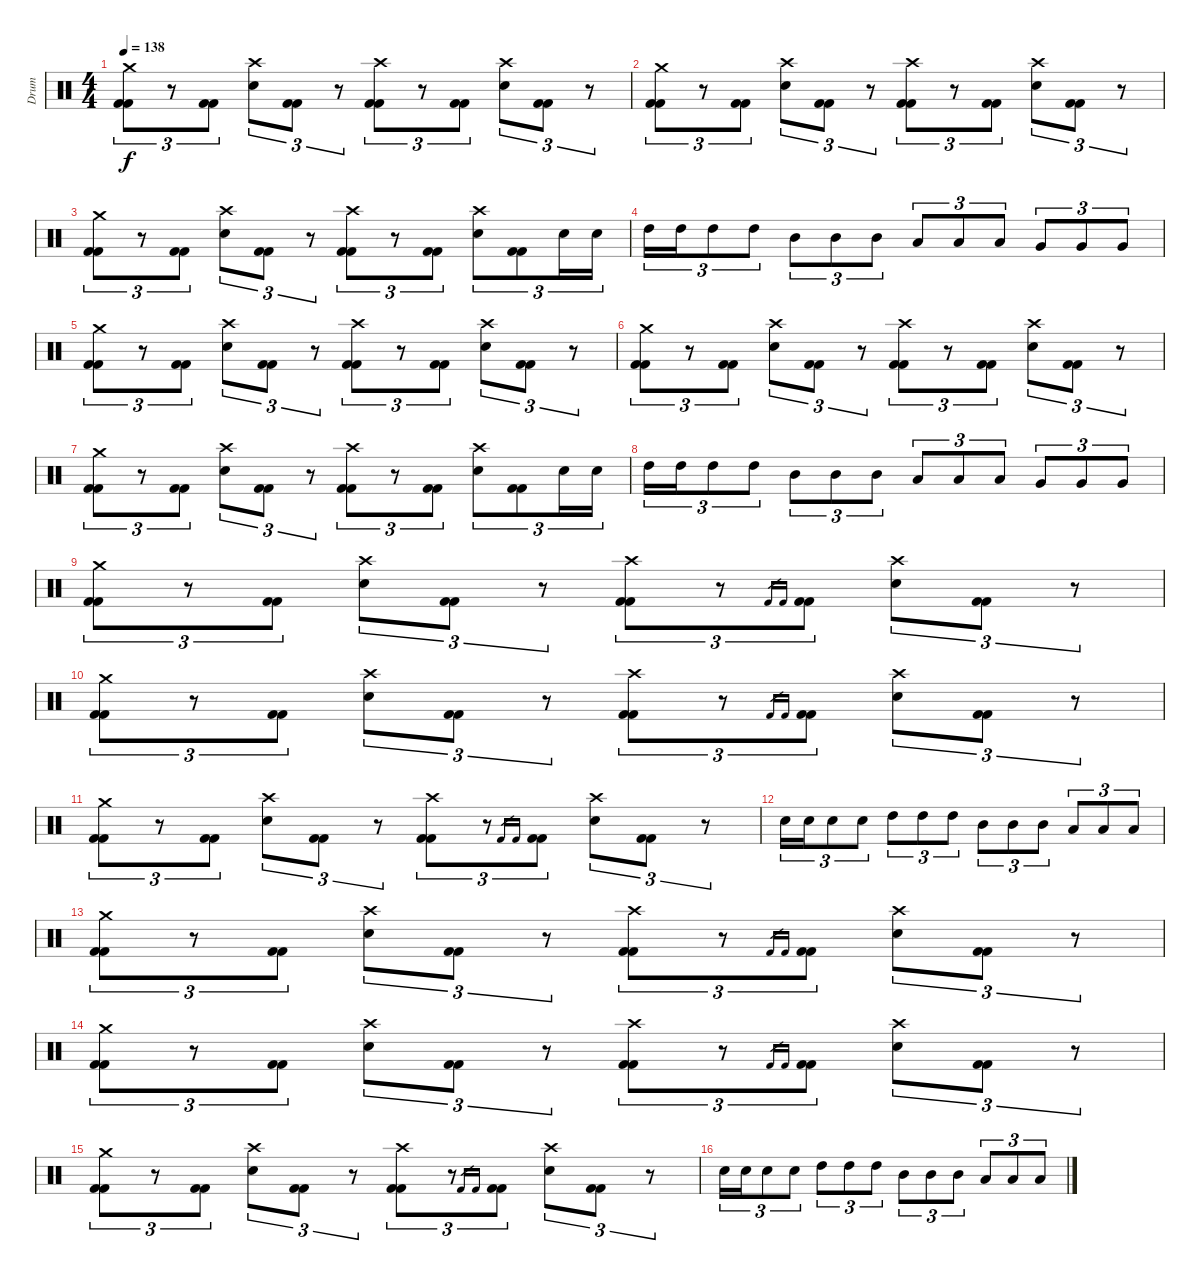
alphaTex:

\track ("Drum" "Drum") {instrument percussion}
\staff {score}
\articulation defaults
\ts (4 4)
\tempo 138
\clef neutral
\ks c
("Kick (hit) 2" "Kick (hit) 2" "Crash medium (hit)").8{tu (3 2) dy f} r.8{tu (3 2)} ("Kick (hit) 2" "Kick (hit) 2").8{tu (3 2)} ("Electric Snare (hit)" "Crash high (hit)").8{tu (3 2)} ("Kick (hit) 2" "Kick (hit) 2").8{tu (3 2)} r.8{tu (3 2)} ("Kick (hit) 2" "Kick (hit) 2" "Crash high (hit)").8{tu (3 2)} r.8{tu (3 2)} ("Kick (hit) 2" "Kick (hit) 2").8{tu (3 2)} ("Electric Snare (hit)" "Crash high (hit)").8{tu (3 2)} ("Kick (hit) 2" "Kick (hit) 2").8{tu (3 2)} r.8{tu (3 2)} |
("Kick (hit) 2" "Kick (hit) 2" "Crash medium (hit)").8{tu (3 2)} r.8{tu (3 2)} ("Kick (hit) 2" "Kick (hit) 2").8{tu (3 2)} ("Electric Snare (hit)" "Crash high (hit)").8{tu (3 2)} ("Kick (hit) 2" "Kick (hit) 2").8{tu (3 2)} r.8{tu (3 2)} ("Kick (hit) 2" "Kick (hit) 2" "Crash high (hit)").8{tu (3 2)} r.8{tu (3 2)} ("Kick (hit) 2" "Kick (hit) 2").8{tu (3 2)} ("Electric Snare (hit)" "Crash high (hit)").8{tu (3 2)} ("Kick (hit) 2" "Kick (hit) 2").8{tu (3 2)} r.8{tu (3 2)} |
("Kick (hit) 2" "Kick (hit) 2" "Crash medium (hit)").8{tu (3 2)} r.8{tu (3 2)} ("Kick (hit) 2" "Kick (hit) 2").8{tu (3 2)} ("Electric Snare (hit)" "Crash high (hit)").8{tu (3 2)} ("Kick (hit) 2" "Kick (hit) 2").8{tu (3 2)} r.8{tu (3 2)} ("Kick (hit) 2" "Kick (hit) 2" "Crash high (hit)").8{tu (3 2)} r.8{tu (3 2)} ("Kick (hit) 2" "Kick (hit) 2").8{tu (3 2)} ("Electric Snare (hit)" "Crash high (hit)").8{tu (3 2)} ("Kick (hit) 2" "Kick (hit) 2").8{tu (3 2)} "Electric Snare (hit)".16{tu (3 2)} "Electric Snare (hit)".16{tu (3 2)} |
"High Tom (hit)".16{tu (3 2)} "High Tom (hit)".16{tu (3 2)} "High Tom (hit)".8{tu (3 2)} "High Tom (hit)".8{tu (3 2)} "Mid Tom (hit)".8{tu (3 2)} "Mid Tom (hit)".8{tu (3 2)} "Mid Tom (hit)".8{tu (3 2)} "Low Tom (hit)".8{tu (3 2)} "Low Tom (hit)".8{tu (3 2)} "Low Tom (hit)".8{tu (3 2)} "Very Low Tom (hit)".8{tu (3 2)} "Very Low Tom (hit)".8{tu (3 2)} "Very Low Tom (hit)".8{tu (3 2)} |
("Kick (hit) 2" "Kick (hit) 2" "Crash medium (hit)").8{tu (3 2)} r.8{tu (3 2)} ("Kick (hit) 2" "Kick (hit) 2").8{tu (3 2)} ("Electric Snare (hit)" "Crash high (hit)").8{tu (3 2)} ("Kick (hit) 2" "Kick (hit) 2").8{tu (3 2)} r.8{tu (3 2)} ("Kick (hit) 2" "Kick (hit) 2" "Crash high (hit)").8{tu (3 2)} r.8{tu (3 2)} ("Kick (hit) 2" "Kick (hit) 2").8{tu (3 2)} ("Electric Snare (hit)" "Crash high (hit)").8{tu (3 2)} ("Kick (hit) 2" "Kick (hit) 2").8{tu (3 2)} r.8{tu (3 2)} |
("Kick (hit) 2" "Kick (hit) 2" "Crash medium (hit)").8{tu (3 2)} r.8{tu (3 2)} ("Kick (hit) 2" "Kick (hit) 2").8{tu (3 2)} ("Electric Snare (hit)" "Crash high (hit)").8{tu (3 2)} ("Kick (hit) 2" "Kick (hit) 2").8{tu (3 2)} r.8{tu (3 2)} ("Kick (hit) 2" "Kick (hit) 2" "Crash high (hit)").8{tu (3 2)} r.8{tu (3 2)} ("Kick (hit) 2" "Kick (hit) 2").8{tu (3 2)} ("Electric Snare (hit)" "Crash high (hit)").8{tu (3 2)} ("Kick (hit) 2" "Kick (hit) 2").8{tu (3 2)} r.8{tu (3 2)} |
("Kick (hit) 2" "Kick (hit) 2" "Crash medium (hit)").8{tu (3 2)} r.8{tu (3 2)} ("Kick (hit) 2" "Kick (hit) 2").8{tu (3 2)} ("Electric Snare (hit)" "Crash high (hit)").8{tu (3 2)} ("Kick (hit) 2" "Kick (hit) 2").8{tu (3 2)} r.8{tu (3 2)} ("Kick (hit) 2" "Kick (hit) 2" "Crash high (hit)").8{tu (3 2)} r.8{tu (3 2)} ("Kick (hit) 2" "Kick (hit) 2").8{tu (3 2)} ("Electric Snare (hit)" "Crash high (hit)").8{tu (3 2)} ("Kick (hit) 2" "Kick (hit) 2").8{tu (3 2)} "Electric Snare (hit)".16{tu (3 2)} "Electric Snare (hit)".16{tu (3 2)} |
"High Tom (hit)".16{tu (3 2)} "High Tom (hit)".16{tu (3 2)} "High Tom (hit)".8{tu (3 2)} "High Tom (hit)".8{tu (3 2)} "Mid Tom (hit)".8{tu (3 2)} "Mid Tom (hit)".8{tu (3 2)} "Mid Tom (hit)".8{tu (3 2)} "Low Tom (hit)".8{tu (3 2)} "Low Tom (hit)".8{tu (3 2)} "Low Tom (hit)".8{tu (3 2)} "Very Low Tom (hit)".8{tu (3 2)} "Very Low Tom (hit)".8{tu (3 2)} "Very Low Tom (hit)".8{tu (3 2)} |
("Kick (hit) 2" "Kick (hit) 2" "Crash medium (hit)").8{tu (3 2)} r.8{tu (3 2)} ("Kick (hit) 2" "Kick (hit) 2").8{tu (3 2)} ("Electric Snare (hit)" "Crash high (hit)").8{tu (3 2)} ("Kick (hit) 2" "Kick (hit) 2").8{tu (3 2)} r.8{tu (3 2)} ("Kick (hit) 2" "Kick (hit) 2" "Crash high (hit)").8{tu (3 2)} r.8{tu (3 2)} "Kick (hit) 2".16{gr} "Kick (hit) 2".16{gr} ("Kick (hit) 2" "Kick (hit) 2").8{tu (3 2)} ("Electric Snare (hit)" "Crash high (hit)").8{tu (3 2)} ("Kick (hit) 2" "Kick (hit) 2").8{tu (3 2)} r.8{tu (3 2)} |
("Kick (hit) 2" "Kick (hit) 2" "Crash medium (hit)").8{tu (3 2)} r.8{tu (3 2)} ("Kick (hit) 2" "Kick (hit) 2").8{tu (3 2)} ("Electric Snare (hit)" "Crash high (hit)").8{tu (3 2)} ("Kick (hit) 2" "Kick (hit) 2").8{tu (3 2)} r.8{tu (3 2)} ("Kick (hit) 2" "Kick (hit) 2" "Crash high (hit)").8{tu (3 2)} r.8{tu (3 2)} "Kick (hit) 2".16{gr} "Kick (hit) 2".16{gr} ("Kick (hit) 2" "Kick (hit) 2").8{tu (3 2)} ("Electric Snare (hit)" "Crash high (hit)").8{tu (3 2)} ("Kick (hit) 2" "Kick (hit) 2").8{tu (3 2)} r.8{tu (3 2)} |
("Kick (hit) 2" "Kick (hit) 2" "Crash medium (hit)").8{tu (3 2)} r.8{tu (3 2)} ("Kick (hit) 2" "Kick (hit) 2").8{tu (3 2)} ("Electric Snare (hit)" "Crash high (hit)").8{tu (3 2)} ("Kick (hit) 2" "Kick (hit) 2").8{tu (3 2)} r.8{tu (3 2)} ("Kick (hit) 2" "Kick (hit) 2" "Crash high (hit)").8{tu (3 2)} r.8{tu (3 2)} "Kick (hit) 2".16{gr} "Kick (hit) 2".16{gr} ("Kick (hit) 2" "Kick (hit) 2").8{tu (3 2)} ("Electric Snare (hit)" "Crash high (hit)").8{tu (3 2)} ("Kick (hit) 2" "Kick (hit) 2").8{tu (3 2)} r.8{tu (3 2)} |
"Electric Snare (hit)".16{tu (3 2)} "Electric Snare (hit)".16{tu (3 2)} "Electric Snare (hit)".8{tu (3 2)} "Electric Snare (hit)".8{tu (3 2)} "High Tom (hit)".8{tu (3 2)} "High Tom (hit)".8{tu (3 2)} "High Tom (hit)".8{tu (3 2)} "Mid Tom (hit)".8{tu (3 2)} "Mid Tom (hit)".8{tu (3 2)} "Mid Tom (hit)".8{tu (3 2)} "Low Tom (hit)".8{tu (3 2)} "Low Tom (hit)".8{tu (3 2)} "Low Tom (hit)".8{tu (3 2)} |
("Kick (hit) 2" "Kick (hit) 2" "Crash medium (hit)").8{tu (3 2)} r.8{tu (3 2)} ("Kick (hit) 2" "Kick (hit) 2").8{tu (3 2)} ("Electric Snare (hit)" "Crash high (hit)").8{tu (3 2)} ("Kick (hit) 2" "Kick (hit) 2").8{tu (3 2)} r.8{tu (3 2)} ("Kick (hit) 2" "Kick (hit) 2" "Crash high (hit)").8{tu (3 2)} r.8{tu (3 2)} "Kick (hit) 2".16{gr} "Kick (hit) 2".16{gr} ("Kick (hit) 2" "Kick (hit) 2").8{tu (3 2)} ("Electric Snare (hit)" "Crash high (hit)").8{tu (3 2)} ("Kick (hit) 2" "Kick (hit) 2").8{tu (3 2)} r.8{tu (3 2)} |
("Kick (hit) 2" "Kick (hit) 2" "Crash medium (hit)").8{tu (3 2)} r.8{tu (3 2)} ("Kick (hit) 2" "Kick (hit) 2").8{tu (3 2)} ("Electric Snare (hit)" "Crash high (hit)").8{tu (3 2)} ("Kick (hit) 2" "Kick (hit) 2").8{tu (3 2)} r.8{tu (3 2)} ("Kick (hit) 2" "Kick (hit) 2" "Crash high (hit)").8{tu (3 2)} r.8{tu (3 2)} "Kick (hit) 2".16{gr} "Kick (hit) 2".16{gr} ("Kick (hit) 2" "Kick (hit) 2").8{tu (3 2)} ("Electric Snare (hit)" "Crash high (hit)").8{tu (3 2)} ("Kick (hit) 2" "Kick (hit) 2").8{tu (3 2)} r.8{tu (3 2)} |
("Kick (hit) 2" "Kick (hit) 2" "Crash medium (hit)").8{tu (3 2)} r.8{tu (3 2)} ("Kick (hit) 2" "Kick (hit) 2").8{tu (3 2)} ("Electric Snare (hit)" "Crash high (hit)").8{tu (3 2)} ("Kick (hit) 2" "Kick (hit) 2").8{tu (3 2)} r.8{tu (3 2)} ("Kick (hit) 2" "Kick (hit) 2" "Crash high (hit)").8{tu (3 2)} r.8{tu (3 2)} "Kick (hit) 2".16{gr} "Kick (hit) 2".16{gr} ("Kick (hit) 2" "Kick (hit) 2").8{tu (3 2)} ("Electric Snare (hit)" "Crash high (hit)").8{tu (3 2)} ("Kick (hit) 2" "Kick (hit) 2").8{tu (3 2)} r.8{tu (3 2)} |
"Electric Snare (hit)".16{tu (3 2)} "Electric Snare (hit)".16{tu (3 2)} "Electric Snare (hit)".8{tu (3 2)} "Electric Snare (hit)".8{tu (3 2)} "High Tom (hit)".8{tu (3 2)} "High Tom (hit)".8{tu (3 2)} "High Tom (hit)".8{tu (3 2)} "Mid Tom (hit)".8{tu (3 2)} "Mid Tom (hit)".8{tu (3 2)} "Mid Tom (hit)".8{tu (3 2)} "Low Tom (hit)".8{tu (3 2)} "Low Tom (hit)".8{tu (3 2)} "Low Tom (hit)".8{tu (3 2)}
